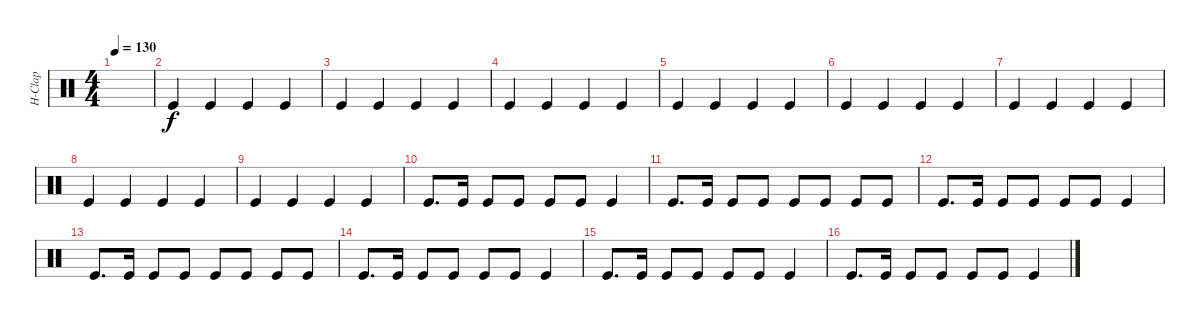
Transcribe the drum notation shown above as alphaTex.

\defaultSystemsLayout 4
\track ("Hand Clap" "H-Clap") {instrument percussion}
\staff {score}
\articulation defaults
\ts (4 4)
\tempo 130
\clef neutral
\ks c
|
"Kick (hit)".4 "Kick (hit)".4 "Kick (hit)".4 "Kick (hit)".4 |
"Kick (hit)".4 "Kick (hit)".4 "Kick (hit)".4 "Kick (hit)".4 |
"Kick (hit)".4 "Kick (hit)".4 "Kick (hit)".4 "Kick (hit)".4 |
"Kick (hit)".4 "Kick (hit)".4 "Kick (hit)".4 "Kick (hit)".4 |
"Kick (hit)".4 "Kick (hit)".4 "Kick (hit)".4 "Kick (hit)".4 |
"Kick (hit)".4 "Kick (hit)".4 "Kick (hit)".4 "Kick (hit)".4 |
"Kick (hit)".4 "Kick (hit)".4 "Kick (hit)".4 "Kick (hit)".4 |
"Kick (hit)".4 "Kick (hit)".4 "Kick (hit)".4 "Kick (hit)".4 |
"Kick (hit)".8{d} "Kick (hit)".16 "Kick (hit)".8 "Kick (hit)".8 "Kick (hit)".8 "Kick (hit)".8 "Kick (hit)".4 |
"Kick (hit)".8{d} "Kick (hit)".16 "Kick (hit)".8 "Kick (hit)".8 "Kick (hit)".8 "Kick (hit)".8 "Kick (hit)".8 "Kick (hit)".8 |
"Kick (hit)".8{d} "Kick (hit)".16 "Kick (hit)".8 "Kick (hit)".8 "Kick (hit)".8 "Kick (hit)".8 "Kick (hit)".4 |
"Kick (hit)".8{d} "Kick (hit)".16 "Kick (hit)".8 "Kick (hit)".8 "Kick (hit)".8 "Kick (hit)".8 "Kick (hit)".8 "Kick (hit)".8 |
"Kick (hit)".8{d} "Kick (hit)".16 "Kick (hit)".8 "Kick (hit)".8 "Kick (hit)".8 "Kick (hit)".8 "Kick (hit)".4 |
"Kick (hit)".8{d} "Kick (hit)".16 "Kick (hit)".8 "Kick (hit)".8 "Kick (hit)".8 "Kick (hit)".8 "Kick (hit)".4 |
"Kick (hit)".8{d} "Kick (hit)".16 "Kick (hit)".8 "Kick (hit)".8 "Kick (hit)".8 "Kick (hit)".8 "Kick (hit)".4
